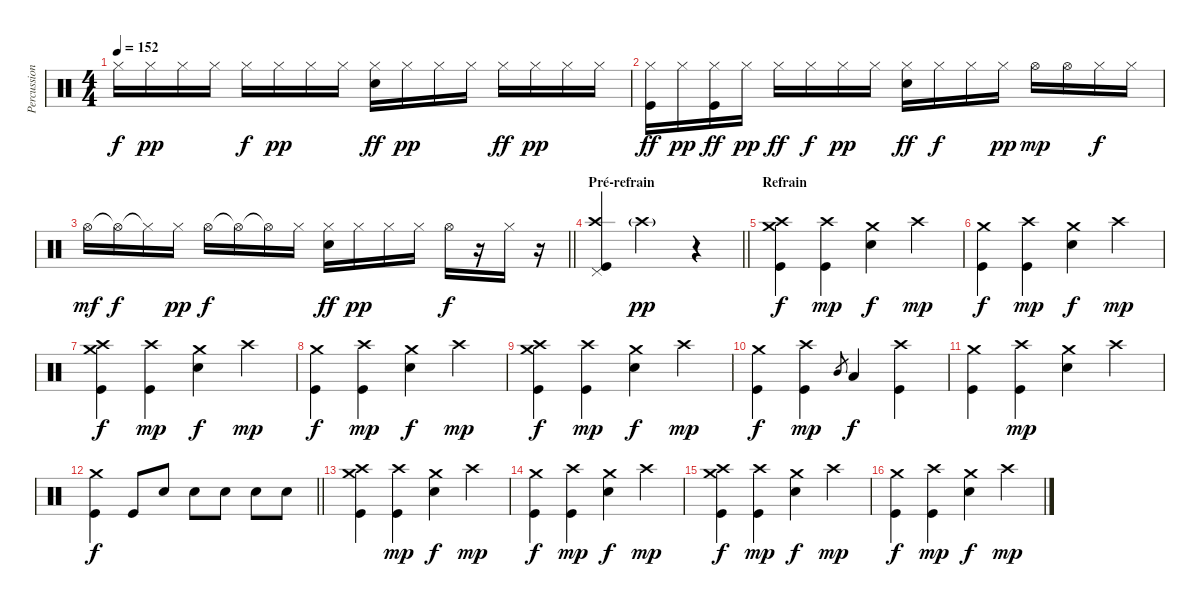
\track ("Percussions" "Percussion") {instrument percussion}
\staff {score}
\articulation defaults
\ts (4 4)
\tempo 152
\clef neutral
\ks c "Hi-Hat (closed)".16{dy f} "Hi-Hat (closed)".16{dy pp} "Hi-Hat (closed)".16 "Hi-Hat (closed)".16 "Hi-Hat (closed)".16{dy f} "Hi-Hat (closed)".16{dy pp} "Hi-Hat (closed)".16 "Hi-Hat (closed)".16
("Hi-Hat (closed)" "Snare (hit) 2").16{dy ff} "Hi-Hat (closed)".16{dy pp} "Hi-Hat (closed)".16 "Hi-Hat (closed)".16 "Hi-Hat (closed)".16{dy ff} "Hi-Hat (closed)".16{dy pp} "Hi-Hat (closed)".16 "Hi-Hat (closed)".16 |
("Hi-Hat (closed)" "Kick (hit)").16{dy ff} "Hi-Hat (closed)".16{dy pp} ("Hi-Hat (closed)" "Kick (hit)").16{dy ff} "Hi-Hat (closed)".16{dy pp} "Hi-Hat (closed)".16{dy ff} "Hi-Hat (closed)".16{dy f} "Hi-Hat (closed)".16{dy pp} "Hi-Hat (closed)".16 ("Hi-Hat (closed)" "Snare (hit) 2").16{dy ff} "Hi-Hat (closed)".16{dy f} "Hi-Hat (closed)".16 "Hi-Hat (closed)".16{dy pp} "Hi-Hat (open)".16{dy mp} "Hi-Hat (open)".16 "Hi-Hat (closed)".16{dy f} "Hi-Hat (closed)".16 |
\barLineRight lightlight "Hi-Hat (open)".16{dy mf} "Hi-Hat (open)"{t}.16{dy f} "Hi-Hat (closed)"{t}.16 "Hi-Hat (closed)".16{dy pp} "Hi-Hat (open)".16{dy f} "Hi-Hat (open)"{t}.16 "Hi-Hat (open)"{t}.16 "Hi-Hat (closed)".16
("Hi-Hat (closed)" "Snare (hit) 2").16{dy ff} "Hi-Hat (closed)".16{dy pp} "Hi-Hat (closed)".16 "Hi-Hat (closed)".16 "Hi-Hat (open)".16{dy f} r.16 "Hi-Hat (closed)".16 r.16 |
\section ("" "Pré-refrain")
\barLineRight lightlight
("Crash high (hit)" "Pedal Hi-Hat (hit)" "Kick (hit)").4 "Crash high (hit)"{g}.2{dy pp} r.4 |
\section ("" "Refrain")
("Crash high (hit)" "Crash medium (hit)" "Kick (hit)").4{dy f} ("Crash high (hit)" "Kick (hit)").4{dy mp} ("Crash medium (hit)" "Snare (hit) 2").4{dy f} "Crash high (hit)".4{dy mp} |
("Crash medium (hit)" "Kick (hit)").4{dy f} ("Crash high (hit)" "Kick (hit)").4{dy mp} ("Crash medium (hit)" "Snare (hit) 2").4{dy f} "Crash high (hit)".4{dy mp} |
("Crash high (hit)" "Crash medium (hit)" "Kick (hit)").4{dy f} ("Crash high (hit)" "Kick (hit)").4{dy mp} ("Crash medium (hit)" "Snare (hit) 2").4{dy f} "Crash high (hit)".4{dy mp} |
("Crash medium (hit)" "Kick (hit)").4{dy f} ("Crash high (hit)" "Kick (hit)").4{dy mp} ("Crash medium (hit)" "Snare (hit) 2").4{dy f} "Crash high (hit)".4{dy mp} |
("Crash high (hit)" "Crash medium (hit)" "Kick (hit)").4{dy f} ("Crash high (hit)" "Kick (hit)").4{dy mp} ("Crash medium (hit)" "Snare (hit) 2").4{dy f} "Crash high (hit)".4{dy mp} |
("Crash medium (hit)" "Kick (hit)").4{dy f} ("Crash high (hit)" "Kick (hit)").4{dy mp} "Mid Tom (hit)".8{gr} "Low Tom (hit)".4{dy f} ("Crash high (hit)" "Kick (hit)").4 |
("Crash medium (hit)" "Kick (hit)").4 ("Crash high (hit)" "Kick (hit)").4{dy mp} ("Crash medium (hit)" "Snare (hit) 2").4 "Crash high (hit)".4 |
\barLineRight lightlight
("Crash medium (hit)" "Kick (hit)").4{dy f} "Kick (hit)".8 "Snare (hit) 2".8 "Snare (hit) 2".8 "Snare (hit) 2".8 "Snare (hit) 2".8 "Snare (hit) 2".8 |
("Crash high (hit)" "Crash medium (hit)" "Kick (hit)").4 ("Crash high (hit)" "Kick (hit)").4{dy mp} ("Crash medium (hit)" "Snare (hit) 2").4{dy f} "Crash high (hit)".4{dy mp} |
("Crash medium (hit)" "Kick (hit)").4{dy f} ("Crash high (hit)" "Kick (hit)").4{dy mp} ("Crash medium (hit)" "Snare (hit) 2").4{dy f} "Crash high (hit)".4{dy mp} |
("Crash high (hit)" "Crash medium (hit)" "Kick (hit)").4{dy f} ("Crash high (hit)" "Kick (hit)").4{dy mp} ("Crash medium (hit)" "Snare (hit) 2").4{dy f} "Crash high (hit)".4{dy mp} |
("Crash medium (hit)" "Kick (hit)").4{dy f} ("Crash high (hit)" "Kick (hit)").4{dy mp} ("Crash medium (hit)" "Snare (hit) 2").4{dy f} "Crash high (hit)".4{dy mp}
